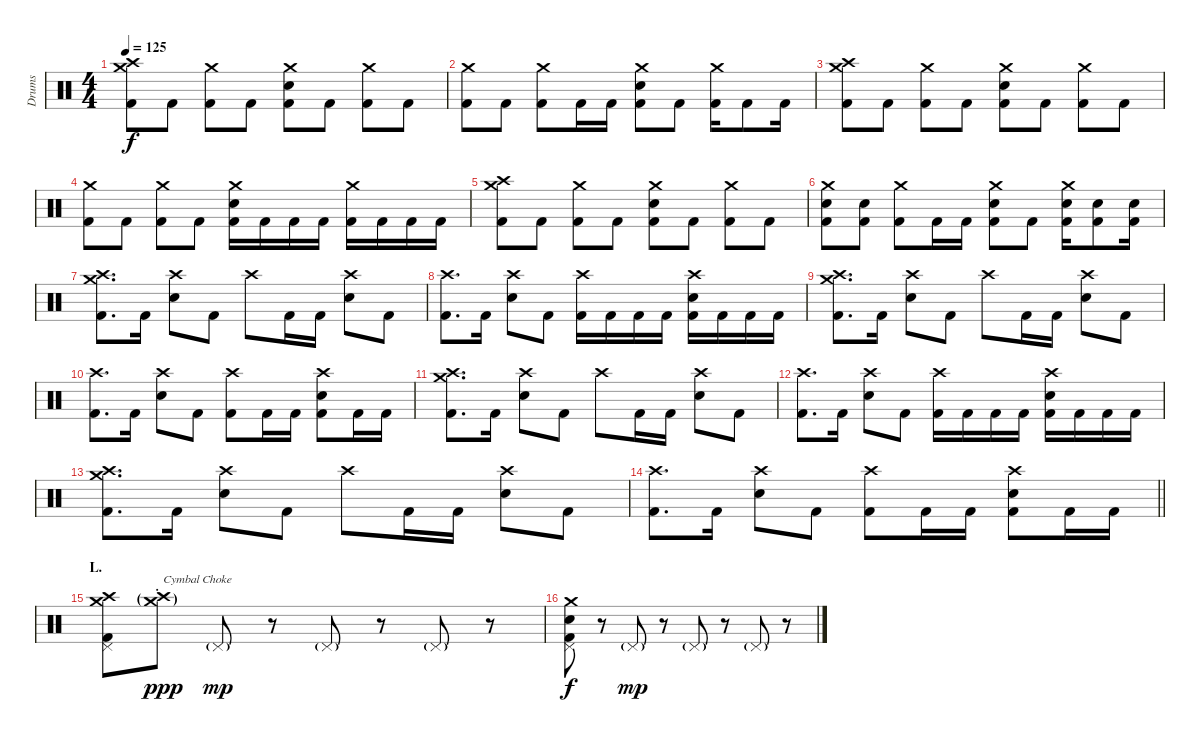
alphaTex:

\track ("Drums" "Drums") {instrument percussion}
\staff {score}
\articulation defaults
\ts (4 4)
\tempo 125
\clef neutral
\ks c
("Crash medium (hit)" "Crash high (hit)" "Kick (hit) 2").8{dy f} "Kick (hit) 2".8 ("Crash medium (hit)" "Kick (hit) 2").8 "Kick (hit) 2".8 ("Crash medium (hit)" "Electric Snare (hit)" "Kick (hit) 2").8 "Kick (hit) 2".8 ("Crash medium (hit)" "Kick (hit) 2").8 "Kick (hit) 2".8 |
("Crash medium (hit)" "Kick (hit) 2").8 "Kick (hit) 2".8 ("Crash medium (hit)" "Kick (hit) 2").8 "Kick (hit) 2".16 "Kick (hit) 2".16 ("Crash medium (hit)" "Electric Snare (hit)" "Kick (hit) 2").8 "Kick (hit) 2".8 ("Crash medium (hit)" "Kick (hit) 2").16 "Kick (hit) 2".8 "Kick (hit) 2".16 |
("Crash medium (hit)" "Crash high (hit)" "Kick (hit) 2").8 "Kick (hit) 2".8 ("Crash medium (hit)" "Kick (hit) 2").8 "Kick (hit) 2".8 ("Crash medium (hit)" "Electric Snare (hit)" "Kick (hit) 2").8 "Kick (hit) 2".8 ("Crash medium (hit)" "Kick (hit) 2").8 "Kick (hit) 2".8 |
("Crash medium (hit)" "Kick (hit) 2").8 "Kick (hit) 2".8 ("Crash medium (hit)" "Kick (hit) 2").8 "Kick (hit) 2".8 ("Crash medium (hit)" "Electric Snare (hit)" "Kick (hit) 2").16 "Kick (hit) 2".16 "Kick (hit) 2".16 "Kick (hit) 2".16 ("Crash medium (hit)" "Kick (hit) 2").16 "Kick (hit) 2".16 "Kick (hit) 2".16 "Kick (hit) 2".16 |
("Crash medium (hit)" "Crash high (hit)" "Kick (hit) 2").8 "Kick (hit) 2".8 ("Crash medium (hit)" "Kick (hit) 2").8 "Kick (hit) 2".8 ("Crash medium (hit)" "Electric Snare (hit)" "Kick (hit) 2").8 "Kick (hit) 2".8 ("Crash medium (hit)" "Kick (hit) 2").8 "Kick (hit) 2".8 |
("Crash medium (hit)" "Electric Snare (hit)" "Kick (hit) 2").8 ("Electric Snare (hit)" "Kick (hit) 2").8 ("Crash medium (hit)" "Kick (hit) 2").8 "Kick (hit) 2".16 "Kick (hit) 2".16 ("Crash medium (hit)" "Electric Snare (hit)" "Kick (hit) 2").8 "Kick (hit) 2".8 ("Crash medium (hit)" "Electric Snare (hit)" "Kick (hit) 2").16 ("Electric Snare (hit)" "Kick (hit) 2").8 ("Electric Snare (hit)" "Kick (hit) 2").16 |
("Crash medium (hit)" "Crash high (hit)" "Kick (hit) 2").8{d} "Kick (hit) 2".16 ("Crash high (hit)" "Electric Snare (hit)").8 "Kick (hit) 2".8 "Crash high (hit)".8 "Kick (hit) 2".16 "Kick (hit) 2".16 ("Crash high (hit)" "Electric Snare (hit)").8 "Kick (hit) 2".8 |
("Crash high (hit)" "Kick (hit) 2").8{d} "Kick (hit) 2".16 ("Crash high (hit)" "Electric Snare (hit)").8 "Kick (hit) 2".8 ("Crash high (hit)" "Kick (hit) 2").16 "Kick (hit) 2".16 "Kick (hit) 2".16 "Kick (hit) 2".16 ("Crash high (hit)" "Electric Snare (hit)" "Kick (hit) 2").16 "Kick (hit) 2".16 "Kick (hit) 2".16 "Kick (hit) 2".16 |
("Crash medium (hit)" "Crash high (hit)" "Kick (hit) 2").8{d} "Kick (hit) 2".16 ("Crash high (hit)" "Electric Snare (hit)").8 "Kick (hit) 2".8 "Crash high (hit)".8 "Kick (hit) 2".16 "Kick (hit) 2".16 ("Crash high (hit)" "Electric Snare (hit)").8 "Kick (hit) 2".8 |
("Crash high (hit)" "Kick (hit) 2").8{d} "Kick (hit) 2".16 ("Crash high (hit)" "Electric Snare (hit)").8 "Kick (hit) 2".8 ("Crash high (hit)" "Kick (hit) 2").8 "Kick (hit) 2".16 "Kick (hit) 2".16 ("Crash high (hit)" "Electric Snare (hit)" "Kick (hit) 2").8 "Kick (hit) 2".16 "Kick (hit) 2".16 |
("Crash medium (hit)" "Crash high (hit)" "Kick (hit) 2").8{d} "Kick (hit) 2".16 ("Crash high (hit)" "Electric Snare (hit)").8 "Kick (hit) 2".8 "Crash high (hit)".8 "Kick (hit) 2".16 "Kick (hit) 2".16 ("Crash high (hit)" "Electric Snare (hit)").8 "Kick (hit) 2".8 |
("Crash high (hit)" "Kick (hit) 2").8{d} "Kick (hit) 2".16 ("Crash high (hit)" "Electric Snare (hit)").8 "Kick (hit) 2".8 ("Crash high (hit)" "Kick (hit) 2").16 "Kick (hit) 2".16 "Kick (hit) 2".16 "Kick (hit) 2".16 ("Crash high (hit)" "Electric Snare (hit)" "Kick (hit) 2").16 "Kick (hit) 2".16 "Kick (hit) 2".16 "Kick (hit) 2".16 |
("Crash medium (hit)" "Crash high (hit)" "Kick (hit) 2").8{d} "Kick (hit) 2".16 ("Crash high (hit)" "Electric Snare (hit)").8 "Kick (hit) 2".8 "Crash high (hit)".8 "Kick (hit) 2".16 "Kick (hit) 2".16 ("Crash high (hit)" "Electric Snare (hit)").8 "Kick (hit) 2".8 |
\barLineRight lightlight
("Crash high (hit)" "Kick (hit) 2").8{d} "Kick (hit) 2".16 ("Crash high (hit)" "Electric Snare (hit)").8 "Kick (hit) 2".8 ("Crash high (hit)" "Kick (hit) 2").8 "Kick (hit) 2".16 "Kick (hit) 2".16 ("Crash high (hit)" "Electric Snare (hit)" "Kick (hit) 2").8 "Kick (hit) 2".16 "Kick (hit) 2".16 |
\section ("" "L.")
("Crash medium (hit)" "Crash high (hit)" "Pedal Hi-Hat (hit)" "Kick (hit) 2").8 ("Crash medium (hit)"{g st} "Crash high (hit)"{g st}).8{txt "Cymbal Choke" dy ppp} "Pedal Hi-Hat (hit)"{g}.8{dy mp} r.8 "Pedal Hi-Hat (hit)"{g}.8 r.8 "Pedal Hi-Hat (hit)"{g}.8 r.8 |
("Crash medium (hit)" "Pedal Hi-Hat (hit)" "Electric Snare (hit)" "Kick (hit) 2").8{dy f} r.8 "Pedal Hi-Hat (hit)"{g}.8{dy mp} r.8 "Pedal Hi-Hat (hit)"{g}.8 r.8 "Pedal Hi-Hat (hit)"{g}.8 r.8
